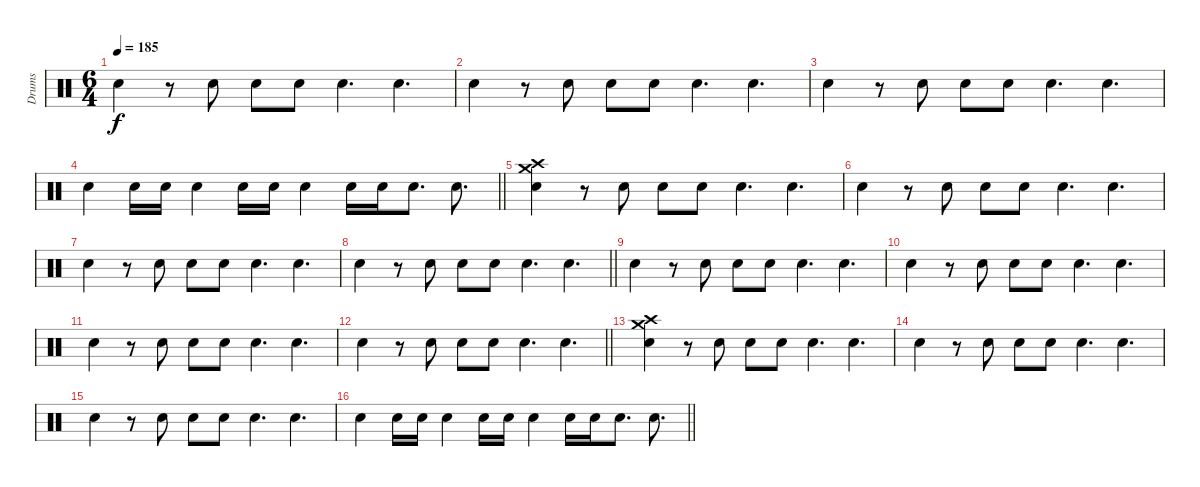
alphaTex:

\track ("Drums" "Drums") {instrument percussion}
\staff {score}
\articulation defaults
\ts (6 4)
\tempo 185
\clef neutral
\ks c "Snare (hit) 2".4{dy f}
r.8 "Snare (hit) 2".8 "Snare (hit) 2".8 "Snare (hit) 2".8 "Snare (hit) 2".4{d} "Snare (hit) 2".4{d} |
"Snare (hit) 2".4 r.8 "Snare (hit) 2".8 "Snare (hit) 2".8 "Snare (hit) 2".8 "Snare (hit) 2".4{d} "Snare (hit) 2".4{d} |
"Snare (hit) 2".4 r.8 "Snare (hit) 2".8 "Snare (hit) 2".8 "Snare (hit) 2".8 "Snare (hit) 2".4{d} "Snare (hit) 2".4{d} |
\barLineRight lightlight "Snare (hit) 2".4 "Snare (hit) 2".16 "Snare (hit) 2".16 "Snare (hit) 2".4 "Snare (hit) 2".16 "Snare (hit) 2".16 "Snare (hit) 2".4 "Snare (hit) 2".16 "Snare (hit) 2".16 "Snare (hit) 2".8{d} "Snare (hit) 2".8{d}
|
\section ("" "")
("Crash medium (hit)" "Crash high (hit)" "Snare (hit) 2").4 r.8 "Snare (hit) 2".8 "Snare (hit) 2".8 "Snare (hit) 2".8 "Snare (hit) 2".4{d} "Snare (hit) 2".4{d} |
"Snare (hit) 2".4 r.8 "Snare (hit) 2".8 "Snare (hit) 2".8 "Snare (hit) 2".8 "Snare (hit) 2".4{d} "Snare (hit) 2".4{d} |
"Snare (hit) 2".4 r.8 "Snare (hit) 2".8 "Snare (hit) 2".8 "Snare (hit) 2".8 "Snare (hit) 2".4{d} "Snare (hit) 2".4{d} |
\barLineRight lightlight "Snare (hit) 2".4
r.8 "Snare (hit) 2".8 "Snare (hit) 2".8 "Snare (hit) 2".8 "Snare (hit) 2".4{d} "Snare (hit) 2".4{d} |
\section ("" "")
"Snare (hit) 2".4 r.8 "Snare (hit) 2".8 "Snare (hit) 2".8 "Snare (hit) 2".8 "Snare (hit) 2".4{d} "Snare (hit) 2".4{d} |
"Snare (hit) 2".4 r.8 "Snare (hit) 2".8 "Snare (hit) 2".8 "Snare (hit) 2".8 "Snare (hit) 2".4{d} "Snare (hit) 2".4{d} |
"Snare (hit) 2".4 r.8 "Snare (hit) 2".8 "Snare (hit) 2".8 "Snare (hit) 2".8 "Snare (hit) 2".4{d} "Snare (hit) 2".4{d} |
\barLineRight lightlight "Snare (hit) 2".4
r.8 "Snare (hit) 2".8 "Snare (hit) 2".8 "Snare (hit) 2".8 "Snare (hit) 2".4{d} "Snare (hit) 2".4{d} |
\section ("" "")
("Crash medium (hit)" "Crash high (hit)" "Snare (hit) 2").4 r.8 "Snare (hit) 2".8 "Snare (hit) 2".8 "Snare (hit) 2".8 "Snare (hit) 2".4{d} "Snare (hit) 2".4{d} |
"Snare (hit) 2".4 r.8 "Snare (hit) 2".8 "Snare (hit) 2".8 "Snare (hit) 2".8 "Snare (hit) 2".4{d} "Snare (hit) 2".4{d} |
"Snare (hit) 2".4 r.8 "Snare (hit) 2".8 "Snare (hit) 2".8 "Snare (hit) 2".8 "Snare (hit) 2".4{d} "Snare (hit) 2".4{d} |
\barLineRight lightlight "Snare (hit) 2".4 "Snare (hit) 2".16 "Snare (hit) 2".16 "Snare (hit) 2".4 "Snare (hit) 2".16 "Snare (hit) 2".16 "Snare (hit) 2".4 "Snare (hit) 2".16 "Snare (hit) 2".16 "Snare (hit) 2".8{d} "Snare (hit) 2".8{d}
